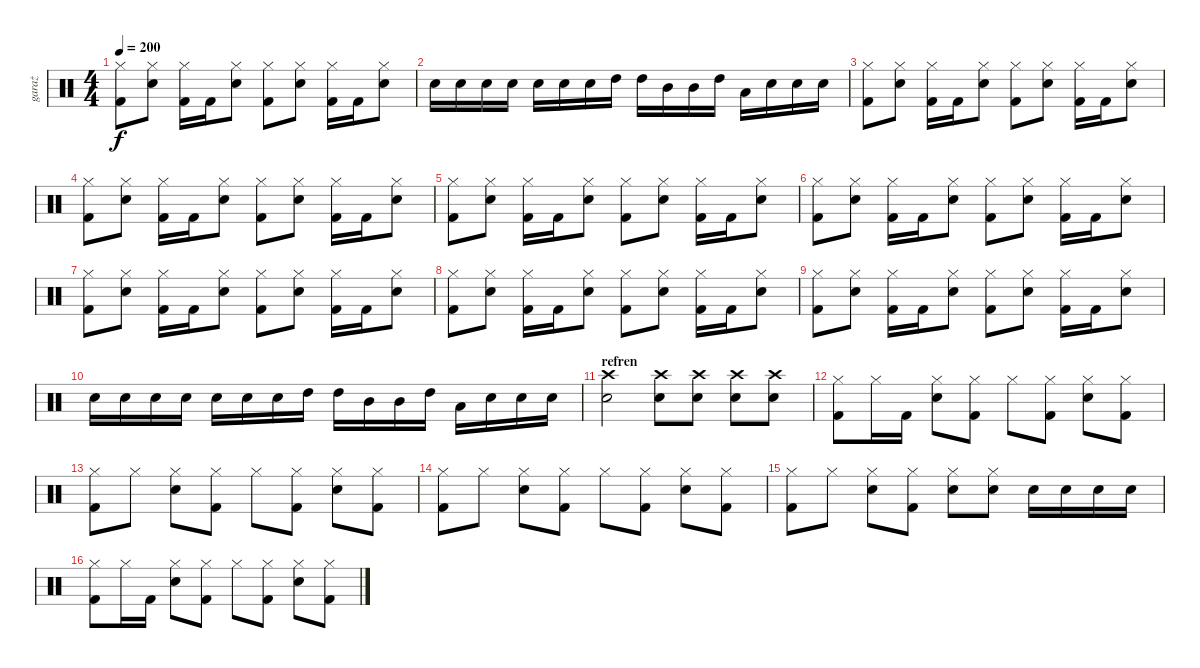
\track ("garaż" "garaż") {instrument percussion}
\staff {score}
\articulation defaults
\ts (4 4)
\tempo 200
\clef neutral
\ks c
("Hi-Hat (closed)" "Kick (hit) 2").8{dy f} ("Hi-Hat (closed)" "Snare (hit) 2").8 ("Hi-Hat (closed)" "Kick (hit) 2").16 "Kick (hit) 2".16 ("Hi-Hat (closed)" "Snare (hit) 2").8 ("Hi-Hat (closed)" "Kick (hit) 2").8 ("Hi-Hat (closed)" "Snare (hit) 2").8 ("Hi-Hat (closed)" "Kick (hit) 2").16 "Kick (hit) 2".16 ("Hi-Hat (closed)" "Snare (hit) 2").8 |
"Snare (hit) 2".16 "Snare (hit) 2".16 "Snare (hit) 2".16 "Snare (hit) 2".16 "Snare (hit) 2".16 "Snare (hit) 2".16 "Snare (hit) 2".16 "High Tom (hit)".16 "High Tom (hit)".16 "Mid Tom (hit)".16 "Mid Tom (hit)".16 "High Tom (hit)".16 "Low Tom (hit)".16 "Snare (hit) 2".16 "Snare (hit) 2".16 "Snare (hit) 2".16 |
("Hi-Hat (closed)" "Kick (hit) 2").8 ("Hi-Hat (closed)" "Snare (hit) 2").8 ("Hi-Hat (closed)" "Kick (hit) 2").16 "Kick (hit) 2".16 ("Hi-Hat (closed)" "Snare (hit) 2").8 ("Hi-Hat (closed)" "Kick (hit) 2").8 ("Hi-Hat (closed)" "Snare (hit) 2").8 ("Hi-Hat (closed)" "Kick (hit) 2").16 "Kick (hit) 2".16 ("Hi-Hat (closed)" "Snare (hit) 2").8 |
("Hi-Hat (closed)" "Kick (hit) 2").8 ("Hi-Hat (closed)" "Snare (hit) 2").8 ("Hi-Hat (closed)" "Kick (hit) 2").16 "Kick (hit) 2".16 ("Hi-Hat (closed)" "Snare (hit) 2").8 ("Hi-Hat (closed)" "Kick (hit) 2").8 ("Hi-Hat (closed)" "Snare (hit) 2").8 ("Hi-Hat (closed)" "Kick (hit) 2").16 "Kick (hit) 2".16 ("Hi-Hat (closed)" "Snare (hit) 2").8 |
("Hi-Hat (closed)" "Kick (hit) 2").8 ("Hi-Hat (closed)" "Snare (hit) 2").8 ("Hi-Hat (closed)" "Kick (hit) 2").16 "Kick (hit) 2".16 ("Hi-Hat (closed)" "Snare (hit) 2").8 ("Hi-Hat (closed)" "Kick (hit) 2").8 ("Hi-Hat (closed)" "Snare (hit) 2").8 ("Hi-Hat (closed)" "Kick (hit) 2").16 "Kick (hit) 2".16 ("Hi-Hat (closed)" "Snare (hit) 2").8 |
("Hi-Hat (closed)" "Kick (hit) 2").8 ("Hi-Hat (closed)" "Snare (hit) 2").8 ("Hi-Hat (closed)" "Kick (hit) 2").16 "Kick (hit) 2".16 ("Hi-Hat (closed)" "Snare (hit) 2").8 ("Hi-Hat (closed)" "Kick (hit) 2").8 ("Hi-Hat (closed)" "Snare (hit) 2").8 ("Hi-Hat (closed)" "Kick (hit) 2").16 "Kick (hit) 2".16 ("Hi-Hat (closed)" "Snare (hit) 2").8 |
("Hi-Hat (closed)" "Kick (hit) 2").8 ("Hi-Hat (closed)" "Snare (hit) 2").8 ("Hi-Hat (closed)" "Kick (hit) 2").16 "Kick (hit) 2".16 ("Hi-Hat (closed)" "Snare (hit) 2").8 ("Hi-Hat (closed)" "Kick (hit) 2").8 ("Hi-Hat (closed)" "Snare (hit) 2").8 ("Hi-Hat (closed)" "Kick (hit) 2").16 "Kick (hit) 2".16 ("Hi-Hat (closed)" "Snare (hit) 2").8 |
("Hi-Hat (closed)" "Kick (hit) 2").8 ("Hi-Hat (closed)" "Snare (hit) 2").8 ("Hi-Hat (closed)" "Kick (hit) 2").16 "Kick (hit) 2".16 ("Hi-Hat (closed)" "Snare (hit) 2").8 ("Hi-Hat (closed)" "Kick (hit) 2").8 ("Hi-Hat (closed)" "Snare (hit) 2").8 ("Hi-Hat (closed)" "Kick (hit) 2").16 "Kick (hit) 2".16 ("Hi-Hat (closed)" "Snare (hit) 2").8 |
("Hi-Hat (closed)" "Kick (hit) 2").8 ("Hi-Hat (closed)" "Snare (hit) 2").8 ("Hi-Hat (closed)" "Kick (hit) 2").16 "Kick (hit) 2".16 ("Hi-Hat (closed)" "Snare (hit) 2").8 ("Hi-Hat (closed)" "Kick (hit) 2").8 ("Hi-Hat (closed)" "Snare (hit) 2").8 ("Hi-Hat (closed)" "Kick (hit) 2").16 "Kick (hit) 2".16 ("Hi-Hat (closed)" "Snare (hit) 2").8 |
"Snare (hit) 2".16 "Snare (hit) 2".16 "Snare (hit) 2".16 "Snare (hit) 2".16 "Snare (hit) 2".16 "Snare (hit) 2".16 "Snare (hit) 2".16 "High Tom (hit)".16 "High Tom (hit)".16 "Mid Tom (hit)".16 "Mid Tom (hit)".16 "High Tom (hit)".16 "Low Tom (hit)".16 "Snare (hit) 2".16 "Snare (hit) 2".16 "Snare (hit) 2".16 |
\section ("" "refren")
("Crash high (hit)" "Snare (hit) 2").2 ("Crash high (hit)" "Snare (hit) 2").8 ("Crash high (hit)" "Snare (hit) 2").8 ("Crash high (hit)" "Snare (hit) 2").8 ("Crash high (hit)" "Snare (hit) 2").8 |
("Hi-Hat (closed)" "Kick (hit) 2").8 "Hi-Hat (closed)".16 "Kick (hit) 2".16 ("Hi-Hat (closed)" "Snare (hit) 2").8 ("Hi-Hat (closed)" "Kick (hit) 2").8 "Hi-Hat (closed)".8 ("Hi-Hat (closed)" "Kick (hit) 2").8 ("Hi-Hat (closed)" "Snare (hit) 2").8 ("Hi-Hat (closed)" "Kick (hit) 2").8 |
("Hi-Hat (closed)" "Kick (hit) 2").8 "Hi-Hat (closed)".8 ("Hi-Hat (closed)" "Snare (hit) 2").8 ("Hi-Hat (closed)" "Kick (hit) 2").8 "Hi-Hat (closed)".8 ("Hi-Hat (closed)" "Kick (hit) 2").8 ("Hi-Hat (closed)" "Snare (hit) 2").8 ("Hi-Hat (closed)" "Kick (hit) 2").8 |
("Hi-Hat (closed)" "Kick (hit) 2").8 "Hi-Hat (closed)".8 ("Hi-Hat (closed)" "Snare (hit) 2").8 ("Hi-Hat (closed)" "Kick (hit) 2").8 "Hi-Hat (closed)".8 ("Hi-Hat (closed)" "Kick (hit) 2").8 ("Hi-Hat (closed)" "Snare (hit) 2").8 ("Hi-Hat (closed)" "Kick (hit) 2").8 |
("Hi-Hat (closed)" "Kick (hit) 2").8 "Hi-Hat (closed)".8 ("Hi-Hat (closed)" "Snare (hit) 2").8 ("Hi-Hat (closed)" "Kick (hit) 2").8 ("Hi-Hat (closed)" "Snare (hit) 2").8 ("Hi-Hat (closed)" "Snare (hit) 2").8 "Snare (hit) 2".16 "Snare (hit) 2".16 "Snare (hit) 2".16 "Snare (hit) 2".16 |
("Hi-Hat (closed)" "Kick (hit) 2").8 "Hi-Hat (closed)".16 "Kick (hit) 2".16 ("Hi-Hat (closed)" "Snare (hit) 2").8 ("Hi-Hat (closed)" "Kick (hit) 2").8 "Hi-Hat (closed)".8 ("Hi-Hat (closed)" "Kick (hit) 2").8 ("Hi-Hat (closed)" "Snare (hit) 2").8 ("Hi-Hat (closed)" "Kick (hit) 2").8
